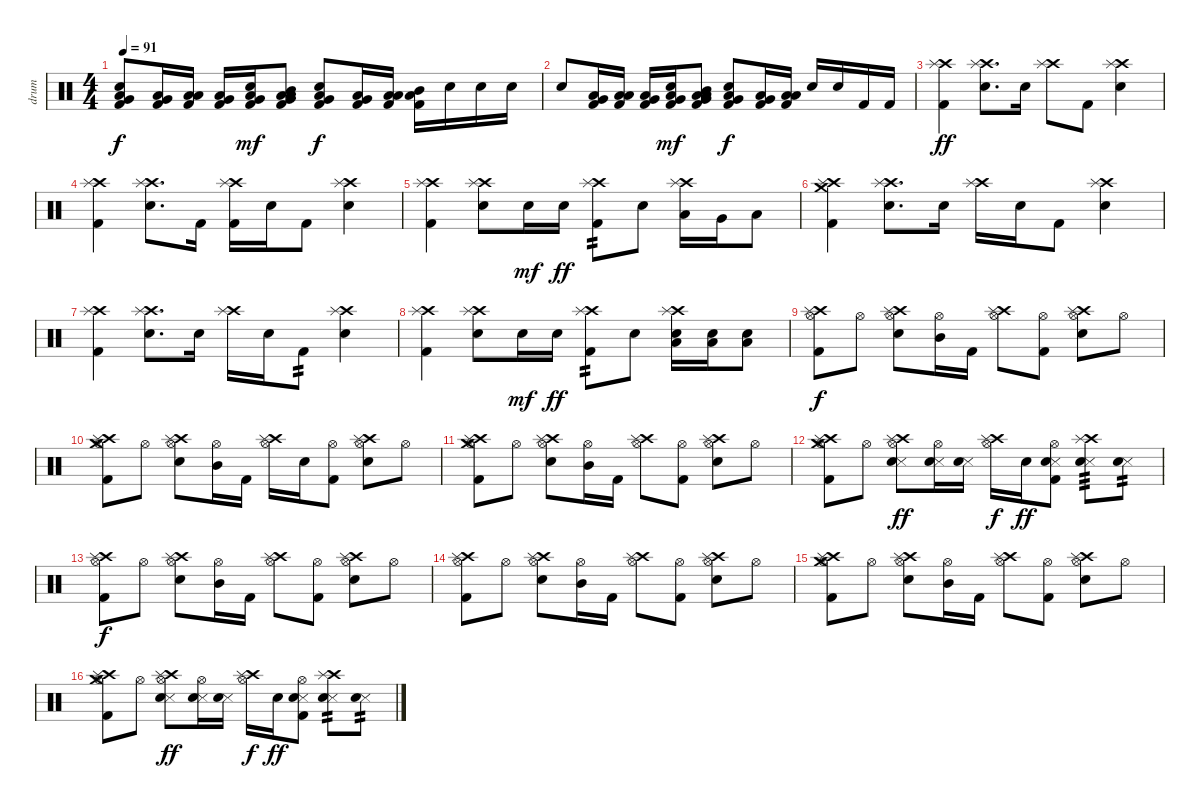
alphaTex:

\track ("drum" "drum") {instrument percussion}
\staff {score}
\articulation defaults
\ts (4 4)
\tempo 91
\clef neutral
\ks c
("Very Low Tom (hit)" "Low Floor Tom (hit)" "Electric Snare (hit)" "Kick (hit) 2").8{dy f} ("Very Low Tom (hit)" "Low Floor Tom (hit)" "Kick (hit) 2").16 ("Low Floor Tom (hit)" "Low Floor Tom (hit)" "Kick (hit) 2").16 ("Low Tom (hit)" "Very Low Tom (hit)" "Kick (hit) 2").16 ("Very Low Tom (hit)" "Low Floor Tom (hit)" "Electric Snare (hit)" "Kick (hit) 2").16{dy mf} ("Mid Tom (hit)" "Very Low Tom (hit)" "Low Floor Tom (hit)" "Low Tom (hit)" "Kick (hit) 2").8 ("Very Low Tom (hit)" "Low Floor Tom (hit)" "Electric Snare (hit)" "Kick (hit) 2").8{dy f} ("Very Low Tom (hit)" "Low Floor Tom (hit)" "Kick (hit) 2").16 ("Low Floor Tom (hit)" "Low Floor Tom (hit)" "Kick (hit) 2").16 ("Mid Tom (hit)" "Low Floor Tom (hit)" "Kick (hit) 2").16 "Electric Snare (hit)".16 "Electric Snare (hit)".16 "Electric Snare (hit)".16 |
"Electric Snare (hit)".8 ("Very Low Tom (hit)" "Low Floor Tom (hit)" "Kick (hit) 2").16 ("Low Floor Tom (hit)" "Low Floor Tom (hit)" "Kick (hit) 2").16 ("Low Tom (hit)" "Very Low Tom (hit)" "Kick (hit) 2").16 ("Very Low Tom (hit)" "Low Floor Tom (hit)" "Electric Snare (hit)" "Kick (hit) 2").16{dy mf} ("Mid Tom (hit)" "Very Low Tom (hit)" "Low Floor Tom (hit)" "Low Tom (hit)" "Kick (hit) 2").8 ("Very Low Tom (hit)" "Low Floor Tom (hit)" "Electric Snare (hit)" "Kick (hit) 2").8{dy f} ("Very Low Tom (hit)" "Low Floor Tom (hit)" "Kick (hit) 2").16 ("Low Floor Tom (hit)" "Low Floor Tom (hit)" "Kick (hit) 2").16 "Electric Snare (hit)".16 "Electric Snare (hit)".16 "Kick (hit) 2".16 "Kick (hit) 2".16 |
("Crash high (hit)" "Splash (hit)" "Kick (hit) 2").4{dy ff} ("Crash high (hit)" "Splash (hit)" "Electric Snare (hit)").8{d} "Electric Snare (hit)".16 ("Crash high (hit)" "Splash (hit)").8 "Kick (hit) 2".8 ("Crash high (hit)" "Splash (hit)" "Electric Snare (hit)").4 |
("Crash high (hit)" "Splash (hit)" "Kick (hit) 2").4 ("Crash high (hit)" "Splash (hit)" "Electric Snare (hit)").8{d} "Kick (hit) 2".16 ("Crash high (hit)" "Splash (hit)" "Kick (hit) 2").16 "Electric Snare (hit)".16 "Kick (hit) 2".8 ("Crash high (hit)" "Splash (hit)" "Electric Snare (hit)").4 |
("Crash high (hit)" "Splash (hit)" "Kick (hit) 2").4 ("Crash high (hit)" "Splash (hit)" "Electric Snare (hit)").8 "Electric Snare (hit)".16{dy mf} "Electric Snare (hit)".16{dy ff} ("Crash high (hit)" "Splash (hit)" "Kick (hit) 2").8{tp 2} "Electric Snare (hit)".8 ("Crash high (hit)" "Splash (hit)" "Low Tom (hit)").16 "Very Low Tom (hit)".16 "Low Floor Tom (hit)".8 |
("Crash high (hit)" "Splash (hit)" "Crash medium (hit)" "Kick (hit) 2").4 ("Crash high (hit)" "Splash (hit)" "Electric Snare (hit)").8{d} "Electric Snare (hit)".16 ("Crash high (hit)" "Splash (hit)").16 "Electric Snare (hit)".16 "Kick (hit) 2".8 ("Crash high (hit)" "Splash (hit)" "Electric Snare (hit)").4 |
("Crash high (hit)" "Splash (hit)" "Kick (hit) 2").4 ("Crash high (hit)" "Splash (hit)" "Electric Snare (hit)").8{d} "Electric Snare (hit)".16 ("Crash high (hit)" "Splash (hit)").16 "Electric Snare (hit)".16 "Kick (hit) 2".8{tp 2} ("Crash high (hit)" "Splash (hit)" "Electric Snare (hit)").4 |
("Crash high (hit)" "Splash (hit)" "Kick (hit) 2").4 ("Crash high (hit)" "Splash (hit)" "Electric Snare (hit)").8 "Electric Snare (hit)".16{dy mf} "Electric Snare (hit)".16{dy ff} ("Crash high (hit)" "Splash (hit)" "Kick (hit) 2").8{tp 2} "Electric Snare (hit)".8 ("Crash high (hit)" "Splash (hit)" "Low Floor Tom (hit)" "Electric Snare (hit)").16 ("Low Floor Tom (hit)" "Electric Snare (hit)").16 ("Low Floor Tom (hit)" "Electric Snare (hit)").8 |
("Crash high (hit)" "Splash (hit)" "Kick (hit) 2" "Hi-Hat (open)").8{dy f} "Hi-Hat (open)".8 ("Crash high (hit)" "Splash (hit)" "Electric Snare (hit)" "Hi-Hat (open)").8 ("Mid Tom (hit)" "Hi-Hat (open)").16 "Kick (hit) 2".16 ("Crash high (hit)" "Splash (hit)" "Hi-Hat (open)").8 ("Kick (hit) 2" "Hi-Hat (open)").8 ("Crash high (hit)" "Splash (hit)" "Electric Snare (hit)" "Hi-Hat (open)").8 "Hi-Hat (open)".8 |
("Crash high (hit)" "Splash (hit)" "Crash medium (hit)" "Kick (hit) 2" "Hi-Hat (open)").8 "Hi-Hat (open)".8 ("Crash high (hit)" "Splash (hit)" "Electric Snare (hit)" "Hi-Hat (open)").8 ("Mid Tom (hit)" "Hi-Hat (open)").16 "Kick (hit) 2".16 ("Crash high (hit)" "Splash (hit)" "Hi-Hat (open)").16 "Electric Snare (hit)".16 ("Kick (hit) 2" "Hi-Hat (open)").8 ("Crash high (hit)" "Splash (hit)" "Electric Snare (hit)" "Hi-Hat (open)").8 "Hi-Hat (open)".8 |
("Crash high (hit)" "Splash (hit)" "Crash medium (hit)" "Kick (hit) 2" "Hi-Hat (open)").8 "Hi-Hat (open)".8 ("Crash high (hit)" "Splash (hit)" "Electric Snare (hit)" "Hi-Hat (open)").8 ("Mid Tom (hit)" "Hi-Hat (open)").16 "Kick (hit) 2".16 ("Crash high (hit)" "Splash (hit)" "Hi-Hat (open)").8 ("Kick (hit) 2" "Hi-Hat (open)").8 ("Crash high (hit)" "Splash (hit)" "Electric Snare (hit)" "Hi-Hat (open)").8 "Hi-Hat (open)".8 |
("Crash high (hit)" "Splash (hit)" "Crash medium (hit)" "Kick (hit) 2" "Hi-Hat (open)").8 "Hi-Hat (open)".8 ("Crash high (hit)" "Splash (hit)" "Snare (side stick) 3" "Electric Snare (hit)" "Hi-Hat (open)").8{dy ff} ("Snare (side stick) 3" "Electric Snare (hit)" "Hi-Hat (open)").16 ("Snare (side stick) 3" "Electric Snare (hit)").16 ("Crash high (hit)" "Splash (hit)" "Hi-Hat (open)").16{dy f} "Electric Snare (hit)".16{dy ff} ("Snare (side stick) 3" "Electric Snare (hit)" "Kick (hit) 2" "Hi-Hat (open)").8 ("Crash high (hit)" "Splash (hit)" "Snare (side stick) 3" "Electric Snare (hit)").8{tp 3} ("Snare (side stick) 3" "Electric Snare (hit)").8{tp 2} |
("Crash high (hit)" "Splash (hit)" "Kick (hit) 2" "Hi-Hat (open)").8{dy f} "Hi-Hat (open)".8 ("Crash high (hit)" "Splash (hit)" "Electric Snare (hit)" "Hi-Hat (open)").8 ("Mid Tom (hit)" "Hi-Hat (open)").16 "Kick (hit) 2".16 ("Crash high (hit)" "Splash (hit)" "Hi-Hat (open)").8 ("Kick (hit) 2" "Hi-Hat (open)").8 ("Crash high (hit)" "Splash (hit)" "Electric Snare (hit)" "Hi-Hat (open)").8 "Hi-Hat (open)".8 |
("Crash high (hit)" "Splash (hit)" "Kick (hit) 2" "Hi-Hat (open)").8 "Hi-Hat (open)".8 ("Crash high (hit)" "Splash (hit)" "Electric Snare (hit)" "Hi-Hat (open)").8 ("Mid Tom (hit)" "Hi-Hat (open)").16 "Kick (hit) 2".16 ("Crash high (hit)" "Splash (hit)" "Hi-Hat (open)").8 ("Kick (hit) 2" "Hi-Hat (open)").8 ("Crash high (hit)" "Splash (hit)" "Electric Snare (hit)" "Hi-Hat (open)").8 "Hi-Hat (open)".8 |
("Crash high (hit)" "Splash (hit)" "Crash medium (hit)" "Kick (hit) 2" "Hi-Hat (open)").8 "Hi-Hat (open)".8 ("Crash high (hit)" "Splash (hit)" "Electric Snare (hit)" "Hi-Hat (open)").8 ("Mid Tom (hit)" "Hi-Hat (open)").16 "Kick (hit) 2".16 ("Crash high (hit)" "Splash (hit)" "Hi-Hat (open)").8 ("Kick (hit) 2" "Hi-Hat (open)").8 ("Crash high (hit)" "Splash (hit)" "Electric Snare (hit)" "Hi-Hat (open)").8 "Hi-Hat (open)".8 |
("Crash high (hit)" "Splash (hit)" "Crash medium (hit)" "Kick (hit) 2" "Hi-Hat (open)").8 "Hi-Hat (open)".8 ("Crash high (hit)" "Splash (hit)" "Snare (side stick) 3" "Electric Snare (hit)" "Hi-Hat (open)").8{dy ff} ("Snare (side stick) 3" "Electric Snare (hit)" "Hi-Hat (open)").16 ("Snare (side stick) 3" "Electric Snare (hit)").16 ("Crash high (hit)" "Splash (hit)" "Hi-Hat (open)").16{dy f} "Electric Snare (hit)".16{dy ff} ("Snare (side stick) 3" "Electric Snare (hit)" "Kick (hit) 2" "Hi-Hat (open)").8 ("Crash high (hit)" "Splash (hit)" "Snare (side stick) 3" "Electric Snare (hit)").8{tp 2} ("Snare (side stick) 3" "Electric Snare (hit)").8{tp 2}
